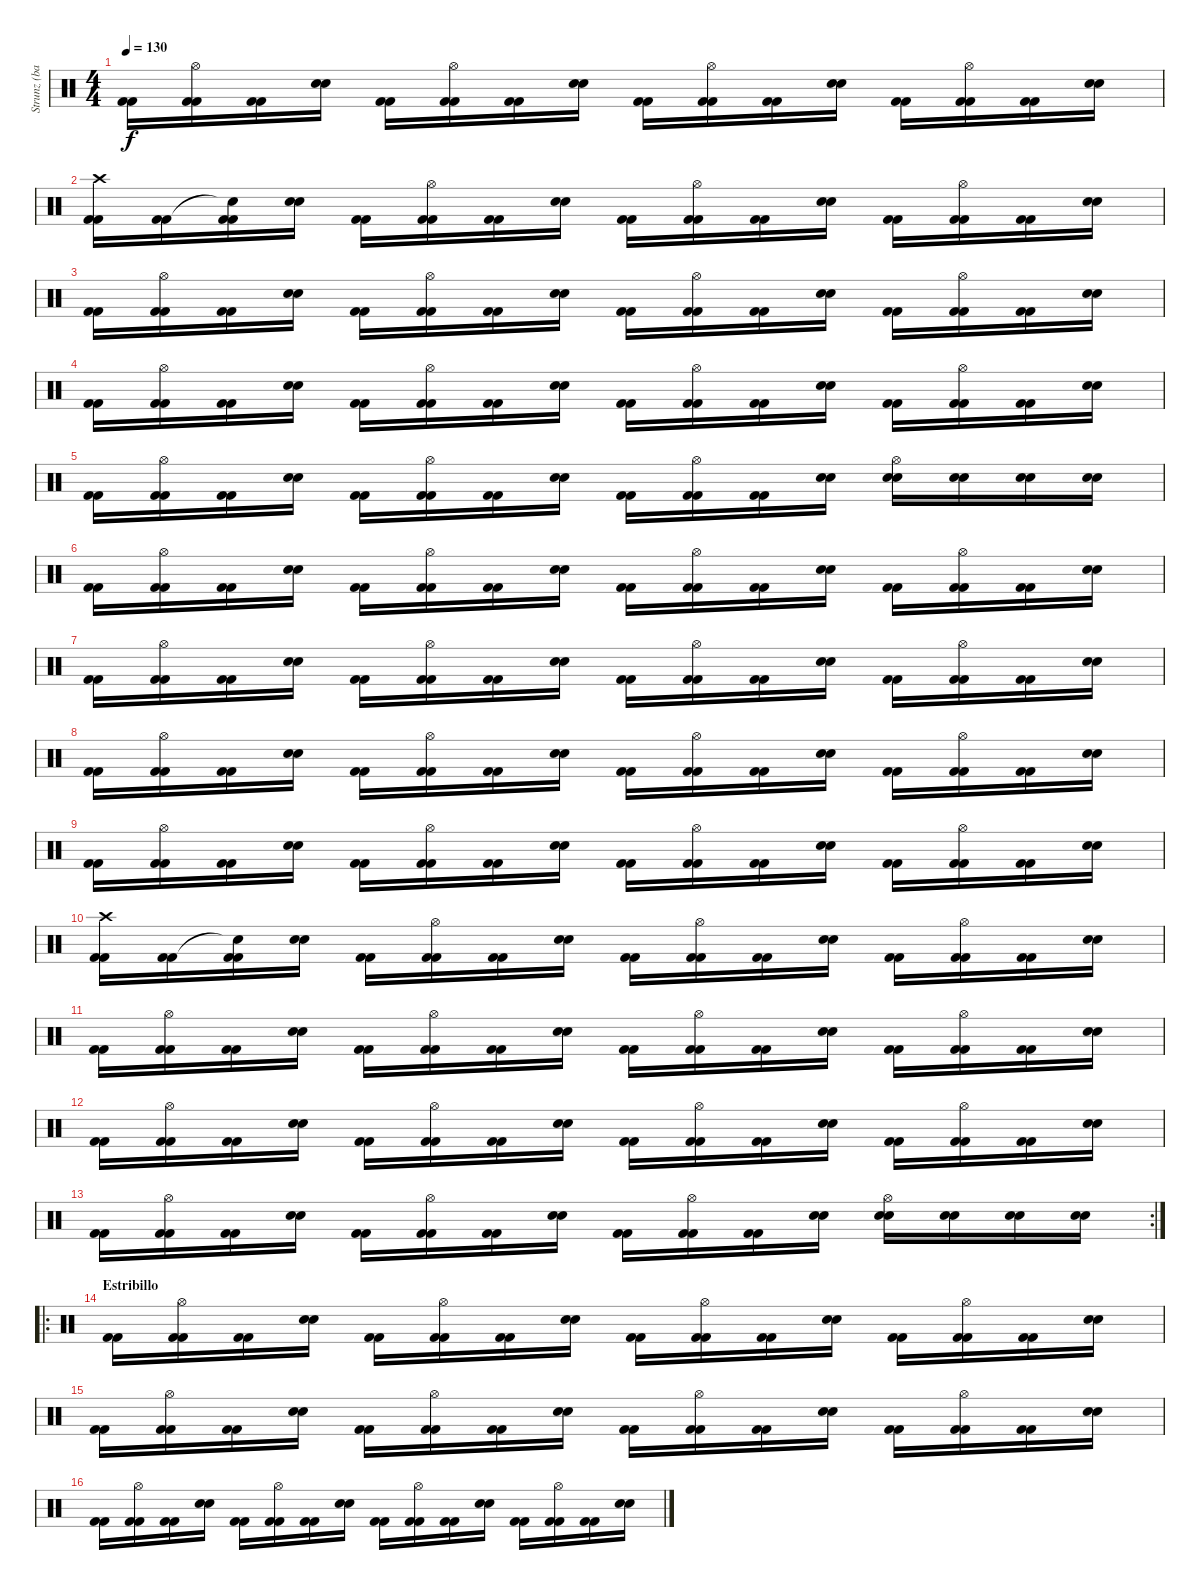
\track ("Strunz (bateria)" "Strunz (ba") {instrument percussion}
\staff {score}
\articulation defaults
\ts (4 4)
\tempo 130
\clef neutral
\ks c
("Kick (hit) 2" "Kick (hit) 2").16{dy f} ("Hi-Hat (open)" "Kick (hit) 2" "Kick (hit) 2").16 ("Kick (hit) 2" "Kick (hit) 2").16 ("Snare (hit) 2" "Snare (hit) 2").16 ("Kick (hit) 2" "Kick (hit) 2").16 ("Hi-Hat (open)" "Kick (hit) 2" "Kick (hit) 2").16 ("Kick (hit) 2" "Kick (hit) 2").16 ("Snare (hit) 2" "Snare (hit) 2").16 ("Kick (hit) 2" "Kick (hit) 2").16 ("Hi-Hat (open)" "Kick (hit) 2" "Kick (hit) 2").16 ("Kick (hit) 2" "Kick (hit) 2").16 ("Snare (hit) 2" "Snare (hit) 2").16 ("Kick (hit) 2" "Kick (hit) 2").16 ("Hi-Hat (open)" "Kick (hit) 2" "Kick (hit) 2").16 ("Kick (hit) 2" "Kick (hit) 2").16 ("Snare (hit) 2" "Snare (hit) 2").16 |
("Crash high (hit)" "Kick (hit) 2" "Kick (hit) 2").16 ("Kick (hit) 2" "Kick (hit) 2").16 ("Snare (hit)"{t} "Kick (hit) 2" "Kick (hit) 2").16 ("Snare (hit) 2" "Snare (hit) 2").16 ("Kick (hit) 2" "Kick (hit) 2").16 ("Hi-Hat (open)" "Kick (hit) 2" "Kick (hit) 2").16 ("Kick (hit) 2" "Kick (hit) 2").16 ("Snare (hit) 2" "Snare (hit) 2").16 ("Kick (hit) 2" "Kick (hit) 2").16 ("Hi-Hat (open)" "Kick (hit) 2" "Kick (hit) 2").16 ("Kick (hit) 2" "Kick (hit) 2").16 ("Snare (hit) 2" "Snare (hit) 2").16 ("Kick (hit) 2" "Kick (hit) 2").16 ("Hi-Hat (open)" "Kick (hit) 2" "Kick (hit) 2").16 ("Kick (hit) 2" "Kick (hit) 2").16 ("Snare (hit) 2" "Snare (hit) 2").16 |
("Kick (hit) 2" "Kick (hit) 2").16 ("Hi-Hat (open)" "Kick (hit) 2" "Kick (hit) 2").16 ("Kick (hit) 2" "Kick (hit) 2").16 ("Snare (hit) 2" "Snare (hit) 2").16 ("Kick (hit) 2" "Kick (hit) 2").16 ("Hi-Hat (open)" "Kick (hit) 2" "Kick (hit) 2").16 ("Kick (hit) 2" "Kick (hit) 2").16 ("Snare (hit) 2" "Snare (hit) 2").16 ("Kick (hit) 2" "Kick (hit) 2").16 ("Hi-Hat (open)" "Kick (hit) 2" "Kick (hit) 2").16 ("Kick (hit) 2" "Kick (hit) 2").16 ("Snare (hit) 2" "Snare (hit) 2").16 ("Kick (hit) 2" "Kick (hit) 2").16 ("Hi-Hat (open)" "Kick (hit) 2" "Kick (hit) 2").16 ("Kick (hit) 2" "Kick (hit) 2").16 ("Snare (hit) 2" "Snare (hit) 2").16 |
("Kick (hit) 2" "Kick (hit) 2").16 ("Hi-Hat (open)" "Kick (hit) 2" "Kick (hit) 2").16 ("Kick (hit) 2" "Kick (hit) 2").16 ("Snare (hit) 2" "Snare (hit) 2").16 ("Kick (hit) 2" "Kick (hit) 2").16 ("Hi-Hat (open)" "Kick (hit) 2" "Kick (hit) 2").16 ("Kick (hit) 2" "Kick (hit) 2").16 ("Snare (hit) 2" "Snare (hit) 2").16 ("Kick (hit) 2" "Kick (hit) 2").16 ("Hi-Hat (open)" "Kick (hit) 2" "Kick (hit) 2").16 ("Kick (hit) 2" "Kick (hit) 2").16 ("Snare (hit) 2" "Snare (hit) 2").16 ("Kick (hit) 2" "Kick (hit) 2").16 ("Hi-Hat (open)" "Kick (hit) 2" "Kick (hit) 2").16 ("Kick (hit) 2" "Kick (hit) 2").16 ("Snare (hit) 2" "Snare (hit) 2").16 |
("Kick (hit) 2" "Kick (hit) 2").16 ("Hi-Hat (open)" "Kick (hit) 2" "Kick (hit) 2").16 ("Kick (hit) 2" "Kick (hit) 2").16 ("Snare (hit) 2" "Snare (hit) 2").16 ("Kick (hit) 2" "Kick (hit) 2").16 ("Hi-Hat (open)" "Kick (hit) 2" "Kick (hit) 2").16 ("Kick (hit) 2" "Kick (hit) 2").16 ("Snare (hit) 2" "Snare (hit) 2").16 ("Kick (hit) 2" "Kick (hit) 2").16 ("Hi-Hat (open)" "Kick (hit) 2" "Kick (hit) 2").16 ("Kick (hit) 2" "Kick (hit) 2").16 ("Snare (hit) 2" "Snare (hit) 2").16 ("Hi-Hat (open)" "Snare (hit) 2" "Snare (hit) 2").16 ("Snare (hit) 2" "Snare (hit) 2").16 ("Snare (hit) 2" "Snare (hit) 2").16 ("Snare (hit) 2" "Snare (hit) 2").16 |
("Kick (hit) 2" "Kick (hit) 2").16 ("Hi-Hat (open)" "Kick (hit) 2" "Kick (hit) 2").16 ("Kick (hit) 2" "Kick (hit) 2").16 ("Snare (hit) 2" "Snare (hit) 2").16 ("Kick (hit) 2" "Kick (hit) 2").16 ("Hi-Hat (open)" "Kick (hit) 2" "Kick (hit) 2").16 ("Kick (hit) 2" "Kick (hit) 2").16 ("Snare (hit) 2" "Snare (hit) 2").16 ("Kick (hit) 2" "Kick (hit) 2").16 ("Hi-Hat (open)" "Kick (hit) 2" "Kick (hit) 2").16 ("Kick (hit) 2" "Kick (hit) 2").16 ("Snare (hit) 2" "Snare (hit) 2").16 ("Kick (hit) 2" "Kick (hit) 2").16 ("Hi-Hat (open)" "Kick (hit) 2" "Kick (hit) 2").16 ("Kick (hit) 2" "Kick (hit) 2").16 ("Snare (hit) 2" "Snare (hit) 2").16 |
("Kick (hit) 2" "Kick (hit) 2").16 ("Hi-Hat (open)" "Kick (hit) 2" "Kick (hit) 2").16 ("Kick (hit) 2" "Kick (hit) 2").16 ("Snare (hit) 2" "Snare (hit) 2").16 ("Kick (hit) 2" "Kick (hit) 2").16 ("Hi-Hat (open)" "Kick (hit) 2" "Kick (hit) 2").16 ("Kick (hit) 2" "Kick (hit) 2").16 ("Snare (hit) 2" "Snare (hit) 2").16 ("Kick (hit) 2" "Kick (hit) 2").16 ("Hi-Hat (open)" "Kick (hit) 2" "Kick (hit) 2").16 ("Kick (hit) 2" "Kick (hit) 2").16 ("Snare (hit) 2" "Snare (hit) 2").16 ("Kick (hit) 2" "Kick (hit) 2").16 ("Hi-Hat (open)" "Kick (hit) 2" "Kick (hit) 2").16 ("Kick (hit) 2" "Kick (hit) 2").16 ("Snare (hit) 2" "Snare (hit) 2").16 |
("Kick (hit) 2" "Kick (hit) 2").16 ("Hi-Hat (open)" "Kick (hit) 2" "Kick (hit) 2").16 ("Kick (hit) 2" "Kick (hit) 2").16 ("Snare (hit) 2" "Snare (hit) 2").16 ("Kick (hit) 2" "Kick (hit) 2").16 ("Hi-Hat (open)" "Kick (hit) 2" "Kick (hit) 2").16 ("Kick (hit) 2" "Kick (hit) 2").16 ("Snare (hit) 2" "Snare (hit) 2").16 ("Kick (hit) 2" "Kick (hit) 2").16 ("Hi-Hat (open)" "Kick (hit) 2" "Kick (hit) 2").16 ("Kick (hit) 2" "Kick (hit) 2").16 ("Snare (hit) 2" "Snare (hit) 2").16 ("Kick (hit) 2" "Kick (hit) 2").16 ("Hi-Hat (open)" "Kick (hit) 2" "Kick (hit) 2").16 ("Kick (hit) 2" "Kick (hit) 2").16 ("Snare (hit) 2" "Snare (hit) 2").16 |
("Kick (hit) 2" "Kick (hit) 2").16 ("Hi-Hat (open)" "Kick (hit) 2" "Kick (hit) 2").16 ("Kick (hit) 2" "Kick (hit) 2").16 ("Snare (hit) 2" "Snare (hit) 2").16 ("Kick (hit) 2" "Kick (hit) 2").16 ("Hi-Hat (open)" "Kick (hit) 2" "Kick (hit) 2").16 ("Kick (hit) 2" "Kick (hit) 2").16 ("Snare (hit) 2" "Snare (hit) 2").16 ("Kick (hit) 2" "Kick (hit) 2").16 ("Hi-Hat (open)" "Kick (hit) 2" "Kick (hit) 2").16 ("Kick (hit) 2" "Kick (hit) 2").16 ("Snare (hit) 2" "Snare (hit) 2").16 ("Kick (hit) 2" "Kick (hit) 2").16 ("Hi-Hat (open)" "Kick (hit) 2" "Kick (hit) 2").16 ("Kick (hit) 2" "Kick (hit) 2").16 ("Snare (hit) 2" "Snare (hit) 2").16 |
("Crash high (hit)" "Kick (hit) 2" "Kick (hit) 2").16 ("Kick (hit) 2" "Kick (hit) 2").16 ("Snare (hit)"{t} "Kick (hit) 2" "Kick (hit) 2").16 ("Snare (hit) 2" "Snare (hit) 2").16 ("Kick (hit) 2" "Kick (hit) 2").16 ("Hi-Hat (open)" "Kick (hit) 2" "Kick (hit) 2").16 ("Kick (hit) 2" "Kick (hit) 2").16 ("Snare (hit) 2" "Snare (hit) 2").16 ("Kick (hit) 2" "Kick (hit) 2").16 ("Hi-Hat (open)" "Kick (hit) 2" "Kick (hit) 2").16 ("Kick (hit) 2" "Kick (hit) 2").16 ("Snare (hit) 2" "Snare (hit) 2").16 ("Kick (hit) 2" "Kick (hit) 2").16 ("Hi-Hat (open)" "Kick (hit) 2" "Kick (hit) 2").16 ("Kick (hit) 2" "Kick (hit) 2").16 ("Snare (hit) 2" "Snare (hit) 2").16 |
("Kick (hit) 2" "Kick (hit) 2").16 ("Hi-Hat (open)" "Kick (hit) 2" "Kick (hit) 2").16 ("Kick (hit) 2" "Kick (hit) 2").16 ("Snare (hit) 2" "Snare (hit) 2").16 ("Kick (hit) 2" "Kick (hit) 2").16 ("Hi-Hat (open)" "Kick (hit) 2" "Kick (hit) 2").16 ("Kick (hit) 2" "Kick (hit) 2").16 ("Snare (hit) 2" "Snare (hit) 2").16 ("Kick (hit) 2" "Kick (hit) 2").16 ("Hi-Hat (open)" "Kick (hit) 2" "Kick (hit) 2").16 ("Kick (hit) 2" "Kick (hit) 2").16 ("Snare (hit) 2" "Snare (hit) 2").16 ("Kick (hit) 2" "Kick (hit) 2").16 ("Hi-Hat (open)" "Kick (hit) 2" "Kick (hit) 2").16 ("Kick (hit) 2" "Kick (hit) 2").16 ("Snare (hit) 2" "Snare (hit) 2").16 |
("Kick (hit) 2" "Kick (hit) 2").16 ("Hi-Hat (open)" "Kick (hit) 2" "Kick (hit) 2").16 ("Kick (hit) 2" "Kick (hit) 2").16 ("Snare (hit) 2" "Snare (hit) 2").16 ("Kick (hit) 2" "Kick (hit) 2").16 ("Hi-Hat (open)" "Kick (hit) 2" "Kick (hit) 2").16 ("Kick (hit) 2" "Kick (hit) 2").16 ("Snare (hit) 2" "Snare (hit) 2").16 ("Kick (hit) 2" "Kick (hit) 2").16 ("Hi-Hat (open)" "Kick (hit) 2" "Kick (hit) 2").16 ("Kick (hit) 2" "Kick (hit) 2").16 ("Snare (hit) 2" "Snare (hit) 2").16 ("Kick (hit) 2" "Kick (hit) 2").16 ("Hi-Hat (open)" "Kick (hit) 2" "Kick (hit) 2").16 ("Kick (hit) 2" "Kick (hit) 2").16 ("Snare (hit) 2" "Snare (hit) 2").16 |
\rc 2
("Kick (hit) 2" "Kick (hit) 2").16 ("Hi-Hat (open)" "Kick (hit) 2" "Kick (hit) 2").16 ("Kick (hit) 2" "Kick (hit) 2").16 ("Snare (hit) 2" "Snare (hit) 2").16 ("Kick (hit) 2" "Kick (hit) 2").16 ("Hi-Hat (open)" "Kick (hit) 2" "Kick (hit) 2").16 ("Kick (hit) 2" "Kick (hit) 2").16 ("Snare (hit) 2" "Snare (hit) 2").16 ("Kick (hit) 2" "Kick (hit) 2").16 ("Hi-Hat (open)" "Kick (hit) 2" "Kick (hit) 2").16 ("Kick (hit) 2" "Kick (hit) 2").16 ("Snare (hit) 2" "Snare (hit) 2").16 ("Hi-Hat (open)" "Snare (hit) 2" "Snare (hit) 2").16 ("Snare (hit) 2" "Snare (hit) 2").16 ("Snare (hit) 2" "Snare (hit) 2").16 ("Snare (hit) 2" "Snare (hit) 2").16 |
\ro
\section ("" "Estribillo")
("Kick (hit) 2" "Kick (hit) 2").16 ("Hi-Hat (open)" "Kick (hit) 2" "Kick (hit) 2").16 ("Kick (hit) 2" "Kick (hit) 2").16 ("Snare (hit) 2" "Snare (hit) 2").16 ("Kick (hit) 2" "Kick (hit) 2").16 ("Hi-Hat (open)" "Kick (hit) 2" "Kick (hit) 2").16 ("Kick (hit) 2" "Kick (hit) 2").16 ("Snare (hit) 2" "Snare (hit) 2").16 ("Kick (hit) 2" "Kick (hit) 2").16 ("Hi-Hat (open)" "Kick (hit) 2" "Kick (hit) 2").16 ("Kick (hit) 2" "Kick (hit) 2").16 ("Snare (hit) 2" "Snare (hit) 2").16 ("Kick (hit) 2" "Kick (hit) 2").16 ("Hi-Hat (open)" "Kick (hit) 2" "Kick (hit) 2").16 ("Kick (hit) 2" "Kick (hit) 2").16 ("Snare (hit) 2" "Snare (hit) 2").16 |
("Kick (hit) 2" "Kick (hit) 2").16 ("Hi-Hat (open)" "Kick (hit) 2" "Kick (hit) 2").16 ("Kick (hit) 2" "Kick (hit) 2").16 ("Snare (hit) 2" "Snare (hit) 2").16 ("Kick (hit) 2" "Kick (hit) 2").16 ("Hi-Hat (open)" "Kick (hit) 2" "Kick (hit) 2").16 ("Kick (hit) 2" "Kick (hit) 2").16 ("Snare (hit) 2" "Snare (hit) 2").16 ("Kick (hit) 2" "Kick (hit) 2").16 ("Hi-Hat (open)" "Kick (hit) 2" "Kick (hit) 2").16 ("Kick (hit) 2" "Kick (hit) 2").16 ("Snare (hit) 2" "Snare (hit) 2").16 ("Kick (hit) 2" "Kick (hit) 2").16 ("Hi-Hat (open)" "Kick (hit) 2" "Kick (hit) 2").16 ("Kick (hit) 2" "Kick (hit) 2").16 ("Snare (hit) 2" "Snare (hit) 2").16 |
("Kick (hit) 2" "Kick (hit) 2").16 ("Hi-Hat (open)" "Kick (hit) 2" "Kick (hit) 2").16 ("Kick (hit) 2" "Kick (hit) 2").16 ("Snare (hit) 2" "Snare (hit) 2").16 ("Kick (hit) 2" "Kick (hit) 2").16 ("Hi-Hat (open)" "Kick (hit) 2" "Kick (hit) 2").16 ("Kick (hit) 2" "Kick (hit) 2").16 ("Snare (hit) 2" "Snare (hit) 2").16 ("Kick (hit) 2" "Kick (hit) 2").16 ("Hi-Hat (open)" "Kick (hit) 2" "Kick (hit) 2").16 ("Kick (hit) 2" "Kick (hit) 2").16 ("Snare (hit) 2" "Snare (hit) 2").16 ("Kick (hit) 2" "Kick (hit) 2").16 ("Hi-Hat (open)" "Kick (hit) 2" "Kick (hit) 2").16 ("Kick (hit) 2" "Kick (hit) 2").16 ("Snare (hit) 2" "Snare (hit) 2").16
